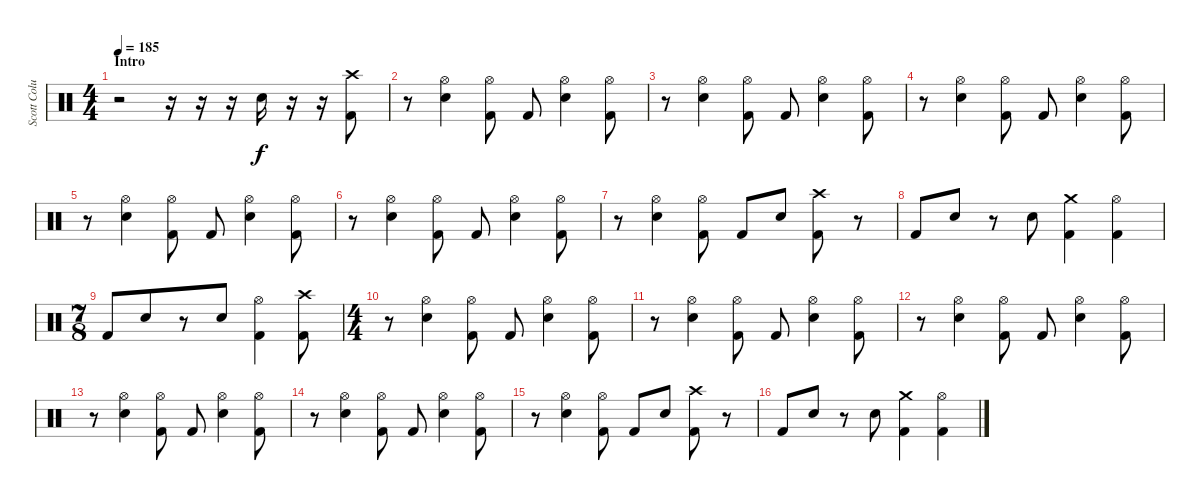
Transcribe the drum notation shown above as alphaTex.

\track ("Scott Columbus" "Scott Colu") {instrument percussion}
\staff {score}
\articulation defaults
\ts (4 4)
\section ("" "Intro")
\tempo 185
\clef neutral
\ks c
r.2{dy f} r.16 r.16 r.16 "Snare (hit) 2".16 r.16 r.16 ("Crash high (hit)" "Kick (hit) 2").8 |
r.8 ("Hi-Hat (open)" "Snare (hit) 2").4 ("Hi-Hat (open)" "Kick (hit) 2").8 "Kick (hit) 2".8 ("Hi-Hat (open)" "Snare (hit) 2").4 ("Hi-Hat (open)" "Kick (hit) 2").8 |
r.8 ("Hi-Hat (open)" "Snare (hit) 2").4 ("Hi-Hat (open)" "Kick (hit) 2").8 "Kick (hit) 2".8 ("Hi-Hat (open)" "Snare (hit) 2").4 ("Hi-Hat (open)" "Kick (hit) 2").8 |
r.8 ("Hi-Hat (open)" "Snare (hit) 2").4 ("Hi-Hat (open)" "Kick (hit) 2").8 "Kick (hit) 2".8 ("Hi-Hat (open)" "Snare (hit) 2").4 ("Hi-Hat (open)" "Kick (hit) 2").8 |
r.8 ("Hi-Hat (open)" "Snare (hit) 2").4 ("Hi-Hat (open)" "Kick (hit) 2").8 "Kick (hit) 2".8 ("Hi-Hat (open)" "Snare (hit) 2").4 ("Hi-Hat (open)" "Kick (hit) 2").8 |
r.8 ("Hi-Hat (open)" "Snare (hit) 2").4 ("Hi-Hat (open)" "Kick (hit) 2").8 "Kick (hit) 2".8 ("Hi-Hat (open)" "Snare (hit) 2").4 ("Hi-Hat (open)" "Kick (hit) 2").8 |
r.8 ("Hi-Hat (open)" "Snare (hit) 2").4 ("Hi-Hat (open)" "Kick (hit) 2").8 "Kick (hit) 2".8 "Snare (hit) 2".8 ("Crash high (hit)" "Kick (hit) 2").8 r.8 |
"Kick (hit) 2".8 "Snare (hit) 2".8 r.8 "Snare (hit) 2".8 ("Crash medium (hit)" "Kick (hit) 2").4 ("Hi-Hat (open)" "Kick (hit) 2").4 |
\ts (7 8)
"Kick (hit) 2".8 "Snare (hit) 2".8 r.8 "Snare (hit) 2".8 ("Hi-Hat (open)" "Kick (hit) 2").4 ("Crash high (hit)" "Kick (hit) 2").8 |
\ts (4 4)
r.8 ("Hi-Hat (open)" "Snare (hit) 2").4 ("Hi-Hat (open)" "Kick (hit) 2").8 "Kick (hit) 2".8 ("Hi-Hat (open)" "Snare (hit) 2").4 ("Hi-Hat (open)" "Kick (hit) 2").8 |
r.8 ("Hi-Hat (open)" "Snare (hit) 2").4 ("Hi-Hat (open)" "Kick (hit) 2").8 "Kick (hit) 2".8 ("Hi-Hat (open)" "Snare (hit) 2").4 ("Hi-Hat (open)" "Kick (hit) 2").8 |
r.8 ("Hi-Hat (open)" "Snare (hit) 2").4 ("Hi-Hat (open)" "Kick (hit) 2").8 "Kick (hit) 2".8 ("Hi-Hat (open)" "Snare (hit) 2").4 ("Hi-Hat (open)" "Kick (hit) 2").8 |
r.8 ("Hi-Hat (open)" "Snare (hit) 2").4 ("Hi-Hat (open)" "Kick (hit) 2").8 "Kick (hit) 2".8 ("Hi-Hat (open)" "Snare (hit) 2").4 ("Hi-Hat (open)" "Kick (hit) 2").8 |
r.8 ("Hi-Hat (open)" "Snare (hit) 2").4 ("Hi-Hat (open)" "Kick (hit) 2").8 "Kick (hit) 2".8 ("Hi-Hat (open)" "Snare (hit) 2").4 ("Hi-Hat (open)" "Kick (hit) 2").8 |
r.8 ("Hi-Hat (open)" "Snare (hit) 2").4 ("Hi-Hat (open)" "Kick (hit) 2").8 "Kick (hit) 2".8 "Snare (hit) 2".8 ("Crash high (hit)" "Kick (hit) 2").8 r.8 |
"Kick (hit) 2".8 "Snare (hit) 2".8 r.8 "Snare (hit) 2".8 ("Crash medium (hit)" "Kick (hit) 2").4 ("Hi-Hat (open)" "Kick (hit) 2").4
